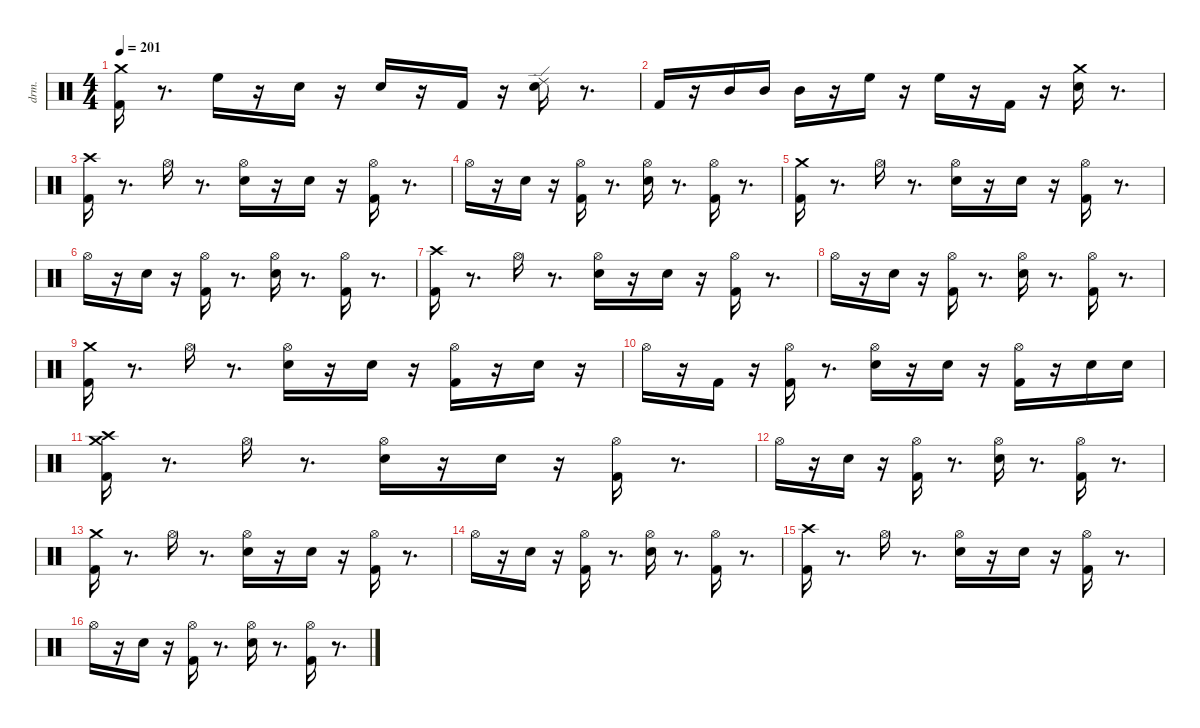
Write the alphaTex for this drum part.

\defaultSystemsLayout 4
\hideDynamics
\bracketExtendMode nobrackets
\otherSystemsTrackNameOrientation horizontal
\track ("Drums" "drm.") {instrument percussion}
\staff {score}
\articulation defaults
\ts (4 4)
\tempo 201
\clef neutral
\ks aminor
("Kick (hit) 2" "Crash medium (hit)").16{dy ff beam Down} r.8{d beam Down} "High Floor Tom (hit)".16{beam Down} r.16{beam Down} "Snare (hit) 2".16{beam Down} r.16{beam Down} "Snare (hit) 2".16{dy mf beam Up} r.16{beam Up} "Kick (hit) 2".16{dy ff beam Up} r.16{beam Up} ("Snare (hit) 2" "Ride (edge) 2").16{dy f beam Down} r.8{d beam Down} |
\beaming (8 2 2 2 2)
"Kick (hit) 2".16{dy ff beam Up} r.16{beam Up} "Mid Tom (hit)".16{beam Up} "Mid Tom (hit)".16{dy mp beam Up} "Mid Tom (hit)".16{dy f beam Down} r.16{beam Down} "High Floor Tom (hit)".16{dy ff beam Down} r.16{beam Down} "High Floor Tom (hit)".16{beam Down} r.16{beam Down} "Kick (hit) 2".16{beam Down} r.16{beam Down} ("Snare (hit) 2" "Crash medium (hit)").16{dy fff beam Down} r.8{d beam Down} |
("Kick (hit) 2" "Crash high (hit)"{acc #}).16{dy ff beam Down} r.8{d beam Down} "Hi-Hat (open)"{acc #}.16{dy f beam Down} r.8{d beam Down} ("Snare (hit) 2" "Hi-Hat (open)"{acc #}).16{dy ff beam Down} r.16{beam Down} "Snare (hit) 2".16{dy mf beam Down} r.16{beam Down} ("Kick (hit) 2" "Hi-Hat (open)"{acc #}).16{dy ff beam Down} r.8{d beam Down} |
"Hi-Hat (open)"{acc #}.16{dy fff beam Down} r.16{beam Down} "Snare (hit) 2".16{dy ppp beam Down} r.16{beam Down} ("Kick (hit) 2" "Hi-Hat (open)"{acc #}).16{dy ff beam Down} r.8{d beam Down} ("Snare (hit) 2" "Hi-Hat (open)"{acc #}).16{beam Down} r.8{d beam Down} ("Kick (hit) 2" "Hi-Hat (open)"{acc #}).16{beam Down} r.8{d beam Down} |
("Kick (hit) 2" "Crash medium (hit)").16{beam Down} r.8{d beam Down} "Hi-Hat (open)"{acc #}.16{dy f beam Down} r.8{d beam Down} ("Snare (hit) 2" "Hi-Hat (open)"{acc #}).16{dy ff beam Down} r.16{beam Down} "Snare (hit) 2".16{dy mf beam Down} r.16{beam Down} ("Kick (hit) 2" "Hi-Hat (open)"{acc #}).16{dy ff beam Down} r.8{d beam Down} |
"Hi-Hat (open)"{acc #}.16{dy fff beam Down} r.16{beam Down} "Snare (hit) 2".16{dy ppp beam Down} r.16{beam Down} ("Kick (hit) 2" "Hi-Hat (open)"{acc #}).16{dy ff beam Down} r.8{d beam Down} ("Snare (hit) 2" "Hi-Hat (open)"{acc #}).16{beam Down} r.8{d beam Down} ("Kick (hit) 2" "Hi-Hat (open)"{acc #}).16{beam Down} r.8{d beam Down} |
("Kick (hit) 2" "Crash high (hit)"{acc #}).16{beam Down} r.8{d beam Down} "Hi-Hat (open)"{acc #}.16{dy f beam Down} r.8{d beam Down} ("Snare (hit) 2" "Hi-Hat (open)"{acc #}).16{dy ff beam Down} r.16{beam Down} "Snare (hit) 2".16{dy mf beam Down} r.16{beam Down} ("Kick (hit) 2" "Hi-Hat (open)"{acc #}).16{dy ff beam Down} r.8{d beam Down} |
"Hi-Hat (open)"{acc #}.16{dy fff beam Down} r.16{beam Down} "Snare (hit) 2".16{dy ppp beam Down} r.16{beam Down} ("Kick (hit) 2" "Hi-Hat (open)"{acc #}).16{dy ff beam Down} r.8{d beam Down} ("Snare (hit) 2" "Hi-Hat (open)"{acc #}).16{beam Down} r.8{d beam Down} ("Kick (hit) 2" "Hi-Hat (open)"{acc #}).16{beam Down} r.8{d beam Down} |
("Kick (hit) 2" "Crash medium (hit)").16{beam Down} r.8{d beam Down} "Hi-Hat (open)"{acc #}.16{dy f beam Down} r.8{d beam Down} ("Snare (hit) 2" "Hi-Hat (open)"{acc #}).16{dy ff beam Down} r.16{beam Down} "Snare (hit) 2".16{dy mf beam Down} r.16{beam Down} ("Kick (hit) 2" "Hi-Hat (open)"{acc #}).16{dy ff beam Down} r.16{beam Down} "Snare (hit) 2".16{beam Down} r.16{beam Down} |
"Hi-Hat (open)"{acc #}.16{dy fff beam Down} r.16{beam Down} "Kick (hit) 2".16{dy mf beam Down} r.16{beam Down} ("Kick (hit) 2" "Hi-Hat (open)"{acc #}).16{dy ff beam Down} r.8{d beam Down} ("Snare (hit) 2" "Hi-Hat (open)"{acc #}).16{beam Down} r.16{beam Down} "Snare (hit) 2".16{beam Down} r.16{beam Down} ("Kick (hit) 2" "Hi-Hat (open)"{acc #}).16{beam Down} r.16{beam Down} "Snare (hit) 2".16{dy f beam Down} "Snare (hit) 2".16{dy pp beam Down} |
("Kick (hit) 2" "Crash high (hit)"{acc #} "Crash medium (hit)").16{dy ff beam Down} r.8{d beam Down} "Hi-Hat (open)"{acc #}.16{dy f beam Down} r.8{d beam Down} ("Snare (hit) 2" "Hi-Hat (open)"{acc #}).16{dy ff beam Down} r.16{beam Down} "Snare (hit) 2".16{dy mf beam Down} r.16{beam Down} ("Kick (hit) 2" "Hi-Hat (open)"{acc #}).16{dy ff beam Down} r.8{d beam Down} |
"Hi-Hat (open)"{acc #}.16{dy fff beam Down} r.16{beam Down} "Snare (hit) 2".16{dy ppp beam Down} r.16{beam Down} ("Kick (hit) 2" "Hi-Hat (open)"{acc #}).16{dy ff beam Down} r.8{d beam Down} ("Snare (hit) 2" "Hi-Hat (open)"{acc #}).16{beam Down} r.8{d beam Down} ("Kick (hit) 2" "Hi-Hat (open)"{acc #}).16{beam Down} r.8{d beam Down} |
("Kick (hit) 2" "Crash medium (hit)").16{beam Down} r.8{d beam Down} "Hi-Hat (open)"{acc #}.16{dy f beam Down} r.8{d beam Down} ("Snare (hit) 2" "Hi-Hat (open)"{acc #}).16{dy ff beam Down} r.16{beam Down} "Snare (hit) 2".16{dy mf beam Down} r.16{beam Down} ("Kick (hit) 2" "Hi-Hat (open)"{acc #}).16{dy ff beam Down} r.8{d beam Down} |
"Hi-Hat (open)"{acc #}.16{dy fff beam Down} r.16{beam Down} "Snare (hit) 2".16{dy ppp beam Down} r.16{beam Down} ("Kick (hit) 2" "Hi-Hat (open)"{acc #}).16{dy ff beam Down} r.8{d beam Down} ("Snare (hit) 2" "Hi-Hat (open)"{acc #}).16{beam Down} r.8{d beam Down} ("Kick (hit) 2" "Hi-Hat (open)"{acc #}).16{beam Down} r.8{d beam Down} |
("Kick (hit) 2" "Crash high (hit)"{acc #}).16{beam Down} r.8{d beam Down} "Hi-Hat (open)"{acc #}.16{dy f beam Down} r.8{d beam Down} ("Snare (hit) 2" "Hi-Hat (open)"{acc #}).16{dy ff beam Down} r.16{beam Down} "Snare (hit) 2".16{dy mf beam Down} r.16{beam Down} ("Kick (hit) 2" "Hi-Hat (open)"{acc #}).16{dy ff beam Down} r.8{d beam Down} |
"Hi-Hat (open)"{acc #}.16{dy fff beam Down} r.16{beam Down} "Snare (hit) 2".16{dy ppp beam Down} r.16{beam Down} ("Kick (hit) 2" "Hi-Hat (open)"{acc #}).16{dy ff beam Down} r.8{d beam Down} ("Snare (hit) 2" "Hi-Hat (open)"{acc #}).16{beam Down} r.8{d beam Down} ("Kick (hit) 2" "Hi-Hat (open)"{acc #}).16{beam Down} r.8{d beam Down}
